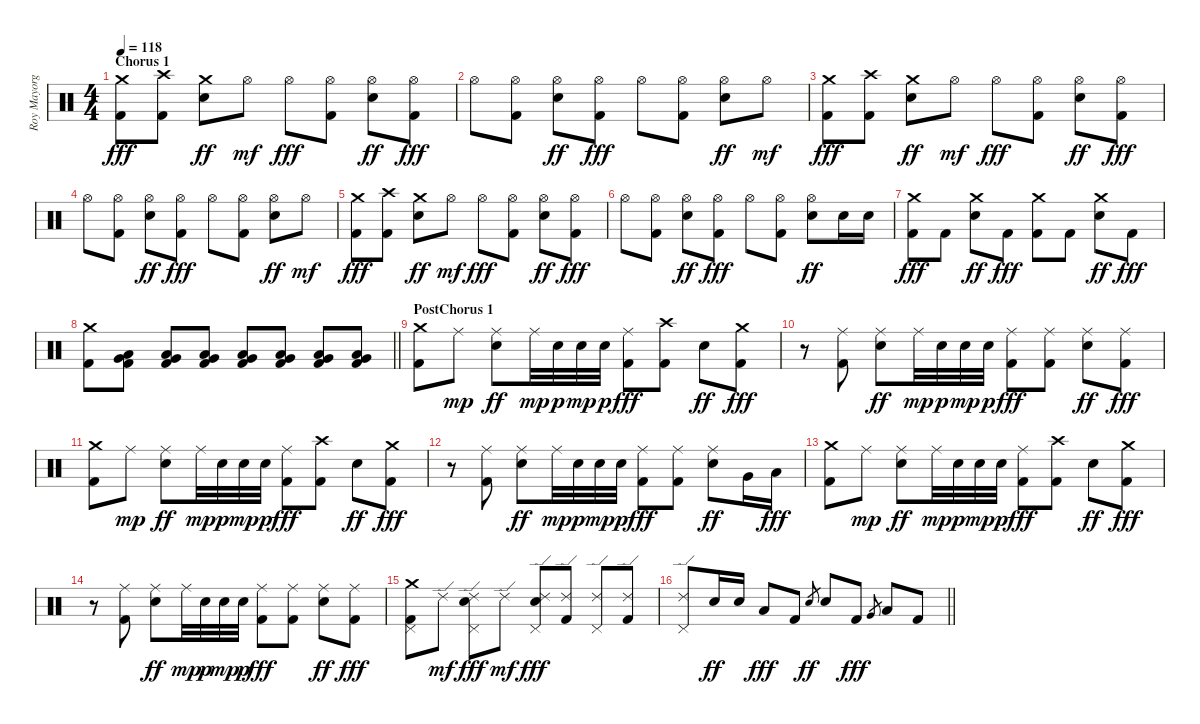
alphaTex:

\track ("Roy Mayorga" "Roy Mayorg") {instrument percussion}
\staff {score}
\articulation defaults
\ts (4 4)
\section ("" "Chorus 1")
\tempo 118
\clef neutral
\ks c
("Crash medium (hit)" "Kick (hit) 2").8{dy fff} ("Crash high (hit)" "Kick (hit) 2").8 ("Crash medium (hit)" "Electric Snare (hit)").8{dy ff} "Hi-Hat (open)".8{dy mf} "Hi-Hat (open)".8{dy fff} ("Hi-Hat (open)" "Kick (hit) 2").8 ("Hi-Hat (open)" "Electric Snare (hit)").8{dy ff} ("Hi-Hat (open)" "Kick (hit) 2").8{dy fff} |
"Hi-Hat (open)".8 ("Hi-Hat (open)" "Kick (hit) 2").8 ("Hi-Hat (open)" "Electric Snare (hit)").8{dy ff} ("Hi-Hat (open)" "Kick (hit) 2").8{dy fff} "Hi-Hat (open)".8 ("Hi-Hat (open)" "Kick (hit) 2").8 ("Hi-Hat (open)" "Electric Snare (hit)").8{dy ff} "Hi-Hat (open)".8{dy mf} |
("Crash medium (hit)" "Kick (hit) 2").8{dy fff} ("Crash high (hit)" "Kick (hit) 2").8 ("Crash medium (hit)" "Electric Snare (hit)").8{dy ff} "Hi-Hat (open)".8{dy mf} "Hi-Hat (open)".8{dy fff} ("Hi-Hat (open)" "Kick (hit) 2").8 ("Hi-Hat (open)" "Electric Snare (hit)").8{dy ff} ("Hi-Hat (open)" "Kick (hit) 2").8{dy fff} |
"Hi-Hat (open)".8 ("Hi-Hat (open)" "Kick (hit) 2").8 ("Hi-Hat (open)" "Electric Snare (hit)").8{dy ff} ("Hi-Hat (open)" "Kick (hit) 2").8{dy fff} "Hi-Hat (open)".8 ("Hi-Hat (open)" "Kick (hit) 2").8 ("Hi-Hat (open)" "Electric Snare (hit)").8{dy ff} "Hi-Hat (open)".8{dy mf} |
("Crash medium (hit)" "Kick (hit) 2").8{dy fff} ("Crash high (hit)" "Kick (hit) 2").8 ("Crash medium (hit)" "Electric Snare (hit)").8{dy ff} "Hi-Hat (open)".8{dy mf} "Hi-Hat (open)".8{dy fff} ("Hi-Hat (open)" "Kick (hit) 2").8 ("Hi-Hat (open)" "Electric Snare (hit)").8{dy ff} ("Hi-Hat (open)" "Kick (hit) 2").8{dy fff} |
"Hi-Hat (open)".8 ("Hi-Hat (open)" "Kick (hit) 2").8 ("Hi-Hat (open)" "Electric Snare (hit)").8{dy ff} ("Hi-Hat (open)" "Kick (hit) 2").8{dy fff} "Hi-Hat (open)".8 ("Hi-Hat (open)" "Kick (hit) 2").8 ("Hi-Hat (open)" "Electric Snare (hit)").8{dy ff} "Electric Snare (hit)".16 "Electric Snare (hit)".16 |
("Crash medium (hit)" "Kick (hit) 2").8{dy fff} "Kick (hit) 2".8 ("Crash medium (hit)" "Electric Snare (hit)").8{dy ff} "Kick (hit) 2".8{dy fff} ("Crash medium (hit)" "Kick (hit) 2").8 "Kick (hit) 2".8 ("Crash medium (hit)" "Electric Snare (hit)").8{dy ff} "Kick (hit) 2".8{dy fff} |
\barLineRight lightlight
("Crash medium (hit)" "Kick (hit) 2").8 ("Very Low Tom (hit)" "Low Floor Tom (hit)" "Kick (hit) 2").8 ("Very Low Tom (hit)" "Low Floor Tom (hit)" "Kick (hit) 2").8 ("Very Low Tom (hit)" "Low Floor Tom (hit)" "Kick (hit) 2").8 ("Very Low Tom (hit)" "Low Floor Tom (hit)" "Kick (hit) 2").8 ("Very Low Tom (hit)" "Low Floor Tom (hit)" "Kick (hit) 2").8 ("Very Low Tom (hit)" "Low Floor Tom (hit)" "Kick (hit) 2").8 ("Very Low Tom (hit)" "Low Floor Tom (hit)" "Kick (hit) 2").8 |
\section ("" "PostChorus 1")
("Crash medium (hit)" "Kick (hit) 2").8 "Ride (middle)".8{dy mp} ("Ride (middle)" "Electric Snare (hit)").8{dy ff} "Ride (middle)".32{dy mp} "Electric Snare (hit)".32{dy p} "Electric Snare (hit)".32{dy mp} "Electric Snare (hit)".32{dy p} ("Ride (middle)" "Kick (hit) 2").8{dy fff} ("Crash high (hit)" "Kick (hit) 2").8 "Electric Snare (hit)".8{dy ff} ("Crash medium (hit)" "Kick (hit) 2").8{dy fff} |
r.8 ("Ride (middle)" "Kick (hit) 2").8 ("Ride (middle)" "Electric Snare (hit)").8{dy ff} "Ride (middle)".32{dy mp} "Electric Snare (hit)".32{dy p} "Electric Snare (hit)".32{dy mp} "Electric Snare (hit)".32{dy p} ("Ride (middle)" "Kick (hit) 2").8{dy fff} ("Ride (middle)" "Kick (hit) 2").8 ("Ride (middle)" "Electric Snare (hit)").8{dy ff} ("Ride (middle)" "Kick (hit) 2").8{dy fff} |
("Crash medium (hit)" "Kick (hit) 2").8 "Ride (middle)".8{dy mp} ("Ride (middle)" "Electric Snare (hit)").8{dy ff} "Ride (middle)".32{dy mp} "Electric Snare (hit)".32{dy p} "Electric Snare (hit)".32{dy mp} "Electric Snare (hit)".32{dy p} ("Ride (middle)" "Kick (hit) 2").8{dy fff} ("Crash high (hit)" "Kick (hit) 2").8 "Electric Snare (hit)".8{dy ff} ("Crash medium (hit)" "Kick (hit) 2").8{dy fff} |
r.8 ("Ride (middle)" "Kick (hit) 2").8 ("Ride (middle)" "Electric Snare (hit)").8{dy ff} "Ride (middle)".32{dy mp} "Electric Snare (hit)".32{dy p} "Electric Snare (hit)".32{dy mp} "Electric Snare (hit)".32{dy p} ("Ride (middle)" "Kick (hit) 2").8{dy fff} ("Ride (middle)" "Kick (hit) 2").8 ("Ride (middle)" "Electric Snare (hit)").8{dy ff} "Very Low Tom (hit)".16 "Low Floor Tom (hit)".16{dy fff} |
("Crash medium (hit)" "Kick (hit) 2").8 "Ride (middle)".8{dy mp} ("Ride (middle)" "Electric Snare (hit)").8{dy ff} "Ride (middle)".32{dy mp} "Electric Snare (hit)".32{dy p} "Electric Snare (hit)".32{dy mp} "Electric Snare (hit)".32{dy p} ("Ride (middle)" "Kick (hit) 2").8{dy fff} ("Crash high (hit)" "Kick (hit) 2").8 "Electric Snare (hit)".8{dy ff} ("Crash medium (hit)" "Kick (hit) 2").8{dy fff} |
r.8 ("Ride (middle)" "Kick (hit) 2").8 ("Ride (middle)" "Electric Snare (hit)").8{dy ff} "Ride (middle)".32{dy mp} "Electric Snare (hit)".32{dy p} "Electric Snare (hit)".32{dy mp} "Electric Snare (hit)".32{dy p} ("Ride (middle)" "Kick (hit) 2").8{dy fff} ("Ride (middle)" "Kick (hit) 2").8 ("Ride (middle)" "Electric Snare (hit)").8{dy ff} ("Ride (middle)" "Kick (hit) 2").8{dy fff} |
("Crash medium (hit)" "Pedal Hi-Hat (hit)" "Kick (hit) 2").8 "Ride (edge) 2".8{dy mf} ("Ride (edge) 2" "Electric Snare (hit)" "Pedal Hi-Hat (hit)").8{dy fff} "Ride (edge) 2".8{dy mf} ("Ride (edge) 2" "Electric Snare (hit)" "Pedal Hi-Hat (hit)").8{dy fff} ("Ride (edge) 2" "Kick (hit) 2").8 ("Ride (edge) 2" "Pedal Hi-Hat (hit)").8 ("Ride (edge) 2" "Kick (hit) 2").8 |
\barLineRight lightlight
("Ride (edge) 2" "Pedal Hi-Hat (hit)").8 "Electric Snare (hit)".16{dy ff} "Electric Snare (hit)".16 "Low Tom (hit)".8{dy fff} "Kick (hit) 2".8 "Electric Snare (hit)".8{gr dy ff} "Electric Snare (hit)".8 "Kick (hit) 2".8{dy fff} "Very Low Tom (hit)".8{gr} "Low Floor Tom (hit)".8 "Kick (hit) 2".8
